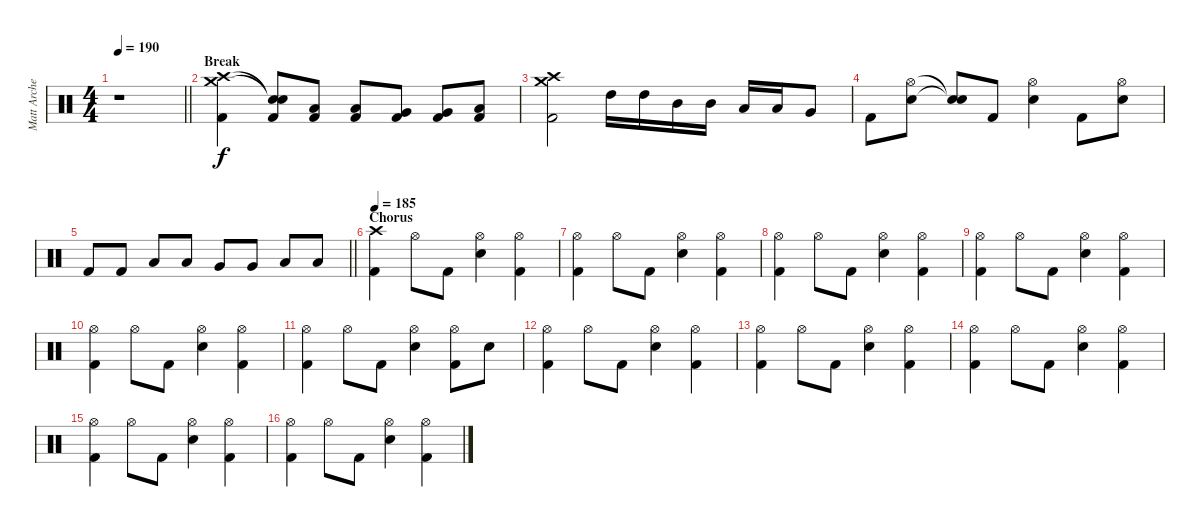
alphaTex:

\track ("Matt Archer" "Matt Arche") {instrument percussion}
\staff {score}
\articulation defaults
\ts (4 4)
\tempo 190
\clef neutral
\barLineRight lightlight
\ks c
r.1{dy f} |
\section ("" "Break")
("Crash high (hit)" "Crash medium (hit)" "Kick (hit) 2").4 ("Snare (hit)"{t} "Snare (hit)"{t} "Kick (hit) 2").8 ("Low Tom (hit)" "Kick (hit) 2").8 ("Low Tom (hit)" "Kick (hit) 2").8 ("Very Low Tom (hit)" "Kick (hit) 2").8 ("Very Low Tom (hit)" "Kick (hit) 2").8 ("Low Floor Tom (hit)" "Kick (hit) 2").8 |
("Crash high (hit)" "Crash medium (hit)" "Kick (hit) 2").2 "High Tom (hit)".16 "High Tom (hit)".16 "Mid Tom (hit)".16 "Mid Tom (hit)".16 "Low Tom (hit)".16 "Low Tom (hit)".16 "Very Low Tom (hit)".8 |
"Kick (hit) 2".8 ("Hi-Hat (open)" "Snare (hit) 2").8 ("Snare (hit)"{t} "Snare (hit)"{t}).8 "Kick (hit) 2".8 ("Hi-Hat (open)" "Snare (hit) 2").4 "Kick (hit) 2".8 ("Hi-Hat (open)" "Snare (hit) 2").8 |
\barLineRight lightlight "Kick (hit) 2".8 "Kick (hit) 2".8 "Low Tom (hit)".8 "Low Tom (hit)".8 "Very Low Tom (hit)".8 "Very Low Tom (hit)".8 "Low Floor Tom (hit)".8 "Low Floor Tom (hit)".8
|
\section ("" "Chorus")
\tempo 185
("Crash high (hit)" "Kick (hit) 2").4 "Hi-Hat (open)".8 "Kick (hit) 2".8 ("Hi-Hat (open)" "Snare (hit) 2").4 ("Hi-Hat (open)" "Kick (hit) 2").4 |
("Hi-Hat (open)" "Kick (hit) 2").4 "Hi-Hat (open)".8 "Kick (hit) 2".8 ("Hi-Hat (open)" "Snare (hit) 2").4 ("Hi-Hat (open)" "Kick (hit) 2").4 |
("Hi-Hat (open)" "Kick (hit) 2").4 "Hi-Hat (open)".8 "Kick (hit) 2".8 ("Hi-Hat (open)" "Snare (hit) 2").4 ("Hi-Hat (open)" "Kick (hit) 2").4 |
("Hi-Hat (open)" "Kick (hit) 2").4 "Hi-Hat (open)".8 "Kick (hit) 2".8 ("Hi-Hat (open)" "Snare (hit) 2").4 ("Hi-Hat (open)" "Kick (hit) 2").4 |
("Hi-Hat (open)" "Kick (hit) 2").4 "Hi-Hat (open)".8 "Kick (hit) 2".8 ("Hi-Hat (open)" "Snare (hit) 2").4 ("Hi-Hat (open)" "Kick (hit) 2").4 |
("Hi-Hat (open)" "Kick (hit) 2").4 "Hi-Hat (open)".8 "Kick (hit) 2".8 ("Hi-Hat (open)" "Snare (hit) 2").4 ("Hi-Hat (open)" "Kick (hit) 2").8 "Snare (hit) 2".8 |
("Hi-Hat (open)" "Kick (hit) 2").4 "Hi-Hat (open)".8 "Kick (hit) 2".8 ("Hi-Hat (open)" "Snare (hit) 2").4 ("Hi-Hat (open)" "Kick (hit) 2").4 |
("Hi-Hat (open)" "Kick (hit) 2").4 "Hi-Hat (open)".8 "Kick (hit) 2".8 ("Hi-Hat (open)" "Snare (hit) 2").4 ("Hi-Hat (open)" "Kick (hit) 2").4 |
("Hi-Hat (open)" "Kick (hit) 2").4 "Hi-Hat (open)".8 "Kick (hit) 2".8 ("Hi-Hat (open)" "Snare (hit) 2").4 ("Hi-Hat (open)" "Kick (hit) 2").4 |
("Hi-Hat (open)" "Kick (hit) 2").4 "Hi-Hat (open)".8 "Kick (hit) 2".8 ("Hi-Hat (open)" "Snare (hit) 2").4 ("Hi-Hat (open)" "Kick (hit) 2").4 |
("Hi-Hat (open)" "Kick (hit) 2").4 "Hi-Hat (open)".8 "Kick (hit) 2".8 ("Hi-Hat (open)" "Snare (hit) 2").4 ("Hi-Hat (open)" "Kick (hit) 2").4
